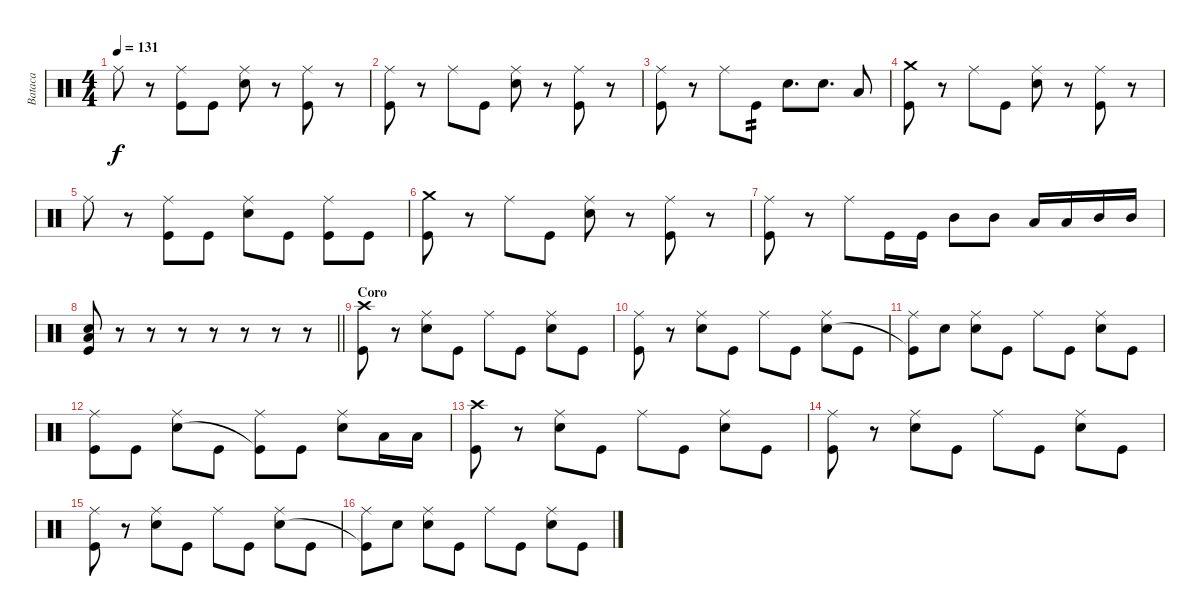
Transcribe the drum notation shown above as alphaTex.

\track ("Bataca" "Bataca") {instrument percussion}
\staff {score}
\articulation defaults
\ts (4 4)
\tempo 131
\clef neutral
\ks c "Ride (middle)".8{dy f}
r.8 ("Ride (middle)" "Kick (hit)").8 "Kick (hit)".8 ("Ride (middle)" "Snare (hit) 2").8 r.8 ("Ride (middle)" "Kick (hit)").8 r.8 |
("Ride (middle)" "Kick (hit)").8 r.8 "Ride (middle)".8 "Kick (hit)".8 ("Ride (middle)" "Snare (hit) 2").8 r.8 ("Ride (middle)" "Kick (hit)").8 r.8 |
("Ride (middle)" "Kick (hit)").8 r.8 "Ride (middle)".8 "Kick (hit)".8{tp 2} "Snare (hit) 2".8{d} "Snare (hit) 2".8{d} "Low Tom (hit)".8 |
("Crash medium (hit)" "Kick (hit)").8 r.8 "Ride (middle)".8 "Kick (hit)".8 ("Ride (middle)" "Snare (hit) 2").8 r.8 ("Ride (middle)" "Kick (hit)").8 r.8 |
"Ride (middle)".8 r.8 ("Ride (middle)" "Kick (hit)").8 "Kick (hit)".8 ("Ride (middle)" "Snare (hit) 2").8 "Kick (hit)".8 ("Ride (middle)" "Kick (hit)").8 "Kick (hit)".8 |
("Crash medium (hit)" "Kick (hit)").8 r.8 "Ride (middle)".8 "Kick (hit)".8 ("Ride (middle)" "Snare (hit) 2").8 r.8 ("Ride (middle)" "Kick (hit)").8 r.8 |
("Ride (middle)" "Kick (hit)").8 r.8 "Ride (middle)".8 "Kick (hit)".16 "Kick (hit)".16 "Mid Tom (hit)".8 "Mid Tom (hit)".8 "Low Tom (hit)".16 "Low Tom (hit)".16 "Mid Tom (hit)".16 "Mid Tom (hit)".16 |
\barLineRight lightlight
("Low Tom (hit)" "Snare (hit) 2" "Kick (hit)").8 r.8 r.8 r.8 r.8 r.8 r.8 r.8 |
\section ("" "Coro")
("Crash high (hit)" "Kick (hit)").8 r.8 ("Ride (middle)" "Snare (hit) 2").8 "Kick (hit)".8 "Ride (middle)".8 "Kick (hit)".8 ("Ride (middle)" "Snare (hit) 2").8 "Kick (hit)".8 |
("Ride (middle)" "Kick (hit)").8 r.8 ("Ride (middle)" "Snare (hit) 2").8 "Kick (hit)".8 "Ride (middle)".8 "Kick (hit)".8 ("Ride (middle)" "Snare (hit) 2").8 "Kick (hit)".8 |
("Ride (middle)" "Kick (hit)"{t}).8 "Snare (hit)".8 ("Ride (middle)" "Snare (hit) 2").8 "Kick (hit)".8 "Ride (middle)".8 "Kick (hit)".8 ("Ride (middle)" "Snare (hit) 2").8 "Kick (hit)".8 |
("Ride (middle)" "Kick (hit)").8 "Kick (hit)".8 ("Ride (middle)" "Snare (hit) 2").8 "Kick (hit)".8 ("Ride (middle)" "Kick (hit)"{t}).8 "Kick (hit)".8 ("Ride (middle)" "Snare (hit) 2").8 "Low Tom (hit)".16 "Low Tom (hit)".16 |
("Crash high (hit)" "Kick (hit)").8 r.8 ("Ride (middle)" "Snare (hit) 2").8 "Kick (hit)".8 "Ride (middle)".8 "Kick (hit)".8 ("Ride (middle)" "Snare (hit) 2").8 "Kick (hit)".8 |
("Ride (middle)" "Kick (hit)").8 r.8 ("Ride (middle)" "Snare (hit) 2").8 "Kick (hit)".8 "Ride (middle)".8 "Kick (hit)".8 ("Ride (middle)" "Snare (hit) 2").8 "Kick (hit)".8 |
("Ride (middle)" "Kick (hit)").8 r.8 ("Ride (middle)" "Snare (hit) 2").8 "Kick (hit)".8 "Ride (middle)".8 "Kick (hit)".8 ("Ride (middle)" "Snare (hit) 2").8 "Kick (hit)".8 |
("Ride (middle)" "Kick (hit)"{t}).8 "Snare (hit)".8 ("Ride (middle)" "Snare (hit) 2").8 "Kick (hit)".8 "Ride (middle)".8 "Kick (hit)".8 ("Ride (middle)" "Snare (hit) 2").8 "Kick (hit)".8
